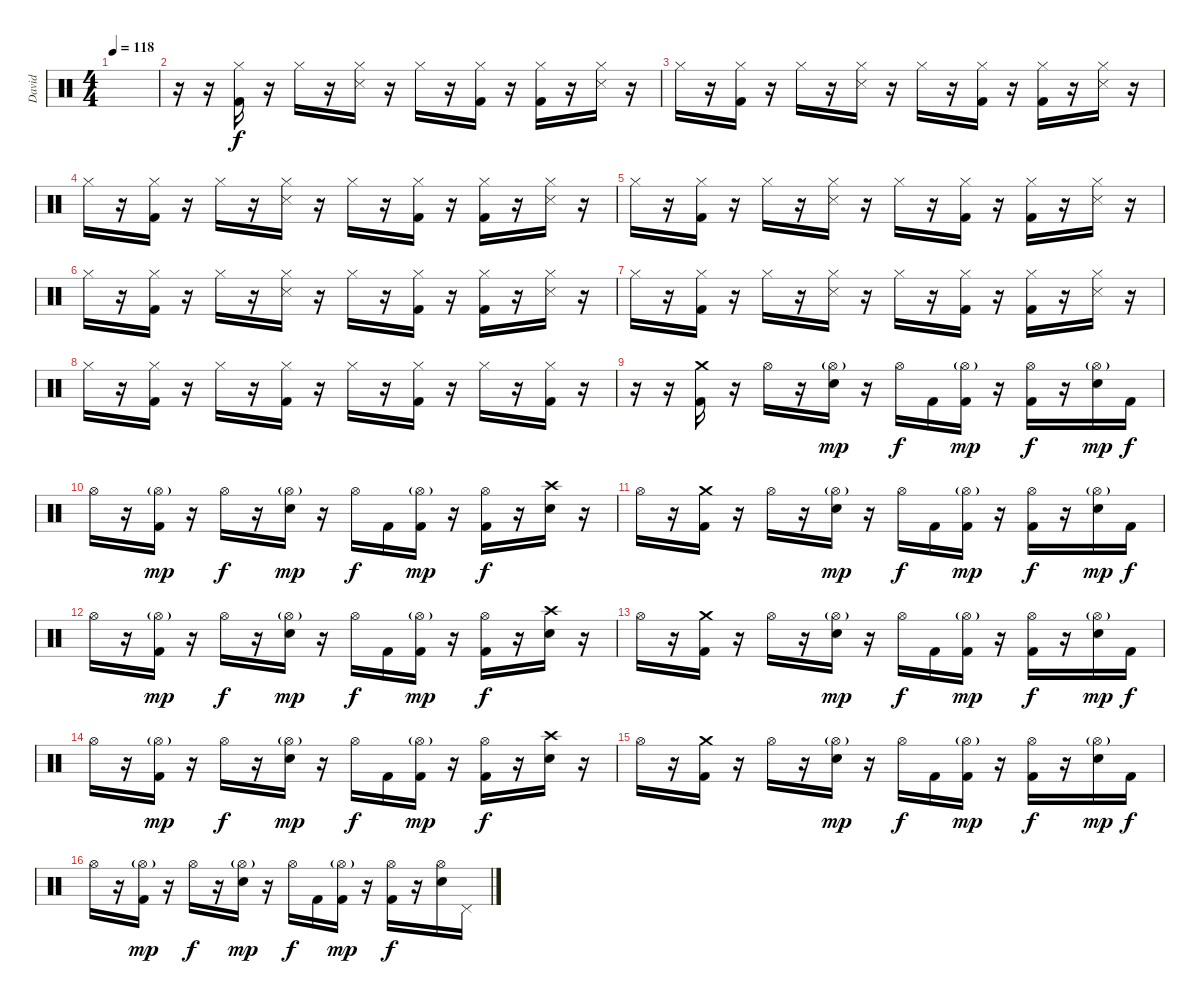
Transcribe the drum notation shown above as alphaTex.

\track ("David" "David") {instrument percussion}
\staff {score}
\articulation defaults
\ts (4 4)
\tempo 118
\clef neutral
\ks c
|
r.16 r.16 ("Hi-Hat (closed)" "Kick (hit) 2").16 r.16 "Hi-Hat (closed)".16 r.16 ("Hi-Hat (closed)" "Snare (side stick) 3").16 r.16 "Hi-Hat (closed)".16 r.16 ("Hi-Hat (closed)" "Kick (hit) 2").16 r.16 ("Hi-Hat (closed)" "Kick (hit) 2").16 r.16 ("Hi-Hat (closed)" "Snare (side stick) 3").16 r.16 |
"Hi-Hat (closed)".16 r.16 ("Hi-Hat (closed)" "Kick (hit) 2").16 r.16 "Hi-Hat (closed)".16 r.16 ("Hi-Hat (closed)" "Snare (side stick) 3").16 r.16 "Hi-Hat (closed)".16 r.16 ("Hi-Hat (closed)" "Kick (hit) 2").16 r.16 ("Hi-Hat (closed)" "Kick (hit) 2").16 r.16 ("Hi-Hat (closed)" "Snare (side stick) 3").16 r.16 |
"Hi-Hat (closed)".16 r.16 ("Hi-Hat (closed)" "Kick (hit) 2").16 r.16 "Hi-Hat (closed)".16 r.16 ("Hi-Hat (closed)" "Snare (side stick) 3").16 r.16 "Hi-Hat (closed)".16 r.16 ("Hi-Hat (closed)" "Kick (hit) 2").16 r.16 ("Hi-Hat (closed)" "Kick (hit) 2").16 r.16 ("Hi-Hat (closed)" "Snare (side stick) 3").16 r.16 |
"Hi-Hat (closed)".16 r.16 ("Hi-Hat (closed)" "Kick (hit) 2").16 r.16 "Hi-Hat (closed)".16 r.16 ("Hi-Hat (closed)" "Snare (side stick) 3").16 r.16 "Hi-Hat (closed)".16 r.16 ("Hi-Hat (closed)" "Kick (hit) 2").16 r.16 ("Hi-Hat (closed)" "Kick (hit) 2").16 r.16 ("Hi-Hat (closed)" "Snare (side stick) 3").16 r.16 |
"Hi-Hat (closed)".16 r.16 ("Hi-Hat (closed)" "Kick (hit) 2").16 r.16 "Hi-Hat (closed)".16 r.16 ("Hi-Hat (closed)" "Snare (side stick) 3").16 r.16 "Hi-Hat (closed)".16 r.16 ("Hi-Hat (closed)" "Kick (hit) 2").16 r.16 ("Hi-Hat (closed)" "Kick (hit) 2").16 r.16 ("Hi-Hat (closed)" "Snare (side stick) 3").16 r.16 |
"Hi-Hat (closed)".16 r.16 ("Hi-Hat (closed)" "Kick (hit) 2").16 r.16 "Hi-Hat (closed)".16 r.16 ("Hi-Hat (closed)" "Snare (side stick) 3").16 r.16 "Hi-Hat (closed)".16 r.16 ("Hi-Hat (closed)" "Kick (hit) 2").16 r.16 ("Hi-Hat (closed)" "Kick (hit) 2").16 r.16 ("Hi-Hat (closed)" "Snare (side stick) 3").16 r.16 |
"Hi-Hat (closed)".16 r.16 ("Hi-Hat (closed)" "Kick (hit) 2").16 r.16 "Hi-Hat (closed)".16 r.16 ("Hi-Hat (closed)" "Kick (hit) 2").16 r.16 "Hi-Hat (closed)".16 r.16 ("Hi-Hat (closed)" "Kick (hit) 2").16 r.16 "Hi-Hat (closed)".16 r.16 ("Hi-Hat (closed)" "Kick (hit) 2").16 r.16 |
r.16 r.16 ("Crash medium (hit)" "Kick (hit) 2").16 r.16 "Hi-Hat (open)".16 r.16 ("Hi-Hat (open)"{g} "Electric Snare (hit)").16{dy mp} r.16 "Hi-Hat (open)".16{dy f} "Kick (hit) 2".16 ("Hi-Hat (open)"{g} "Kick (hit) 2").16{dy mp} r.16 ("Hi-Hat (open)" "Kick (hit) 2").16{dy f} r.16 ("Hi-Hat (open)"{g} "Electric Snare (hit)").16{dy mp} "Kick (hit) 2".16{dy f} |
"Hi-Hat (open)".16 r.16 ("Hi-Hat (open)"{g} "Kick (hit) 2").16{dy mp} r.16 "Hi-Hat (open)".16{dy f} r.16 ("Hi-Hat (open)"{g} "Electric Snare (hit)").16{dy mp} r.16 "Hi-Hat (open)".16{dy f} "Kick (hit) 2".16 ("Hi-Hat (open)"{g} "Kick (hit) 2").16{dy mp} r.16 ("Hi-Hat (open)" "Kick (hit) 2").16{dy f} r.16 ("Crash high (hit)" "Electric Snare (hit)").16 r.16 |
"Hi-Hat (open)".16 r.16 ("Crash medium (hit)" "Kick (hit) 2").16 r.16 "Hi-Hat (open)".16 r.16 ("Hi-Hat (open)"{g} "Electric Snare (hit)").16{dy mp} r.16 "Hi-Hat (open)".16{dy f} "Kick (hit) 2".16 ("Hi-Hat (open)"{g} "Kick (hit) 2").16{dy mp} r.16 ("Hi-Hat (open)" "Kick (hit) 2").16{dy f} r.16 ("Hi-Hat (open)"{g} "Electric Snare (hit)").16{dy mp} "Kick (hit) 2".16{dy f} |
"Hi-Hat (open)".16 r.16 ("Hi-Hat (open)"{g} "Kick (hit) 2").16{dy mp} r.16 "Hi-Hat (open)".16{dy f} r.16 ("Hi-Hat (open)"{g} "Electric Snare (hit)").16{dy mp} r.16 "Hi-Hat (open)".16{dy f} "Kick (hit) 2".16 ("Hi-Hat (open)"{g} "Kick (hit) 2").16{dy mp} r.16 ("Hi-Hat (open)" "Kick (hit) 2").16{dy f} r.16 ("Crash high (hit)" "Electric Snare (hit)").16 r.16 |
"Hi-Hat (open)".16 r.16 ("Crash medium (hit)" "Kick (hit) 2").16 r.16 "Hi-Hat (open)".16 r.16 ("Hi-Hat (open)"{g} "Electric Snare (hit)").16{dy mp} r.16 "Hi-Hat (open)".16{dy f} "Kick (hit) 2".16 ("Hi-Hat (open)"{g} "Kick (hit) 2").16{dy mp} r.16 ("Hi-Hat (open)" "Kick (hit) 2").16{dy f} r.16 ("Hi-Hat (open)"{g} "Electric Snare (hit)").16{dy mp} "Kick (hit) 2".16{dy f} |
"Hi-Hat (open)".16 r.16 ("Hi-Hat (open)"{g} "Kick (hit) 2").16{dy mp} r.16 "Hi-Hat (open)".16{dy f} r.16 ("Hi-Hat (open)"{g} "Electric Snare (hit)").16{dy mp} r.16 "Hi-Hat (open)".16{dy f} "Kick (hit) 2".16 ("Hi-Hat (open)"{g} "Kick (hit) 2").16{dy mp} r.16 ("Hi-Hat (open)" "Kick (hit) 2").16{dy f} r.16 ("Crash high (hit)" "Electric Snare (hit)").16 r.16 |
"Hi-Hat (open)".16 r.16 ("Crash medium (hit)" "Kick (hit) 2").16 r.16 "Hi-Hat (open)".16 r.16 ("Hi-Hat (open)"{g} "Electric Snare (hit)").16{dy mp} r.16 "Hi-Hat (open)".16{dy f} "Kick (hit) 2".16 ("Hi-Hat (open)"{g} "Kick (hit) 2").16{dy mp} r.16 ("Hi-Hat (open)" "Kick (hit) 2").16{dy f} r.16 ("Hi-Hat (open)"{g} "Electric Snare (hit)").16{dy mp} "Kick (hit) 2".16{dy f} |
"Hi-Hat (open)".16 r.16 ("Hi-Hat (open)"{g} "Kick (hit) 2").16{dy mp} r.16 "Hi-Hat (open)".16{dy f} r.16 ("Hi-Hat (open)"{g} "Electric Snare (hit)").16{dy mp} r.16 "Hi-Hat (open)".16{dy f} "Kick (hit) 2".16 ("Hi-Hat (open)"{g} "Kick (hit) 2").16{dy mp} r.16 ("Hi-Hat (open)" "Kick (hit) 2").16{dy f} r.16 ("Hi-Hat (open)" "Electric Snare (hit)").16 "Pedal Hi-Hat (hit)".16
